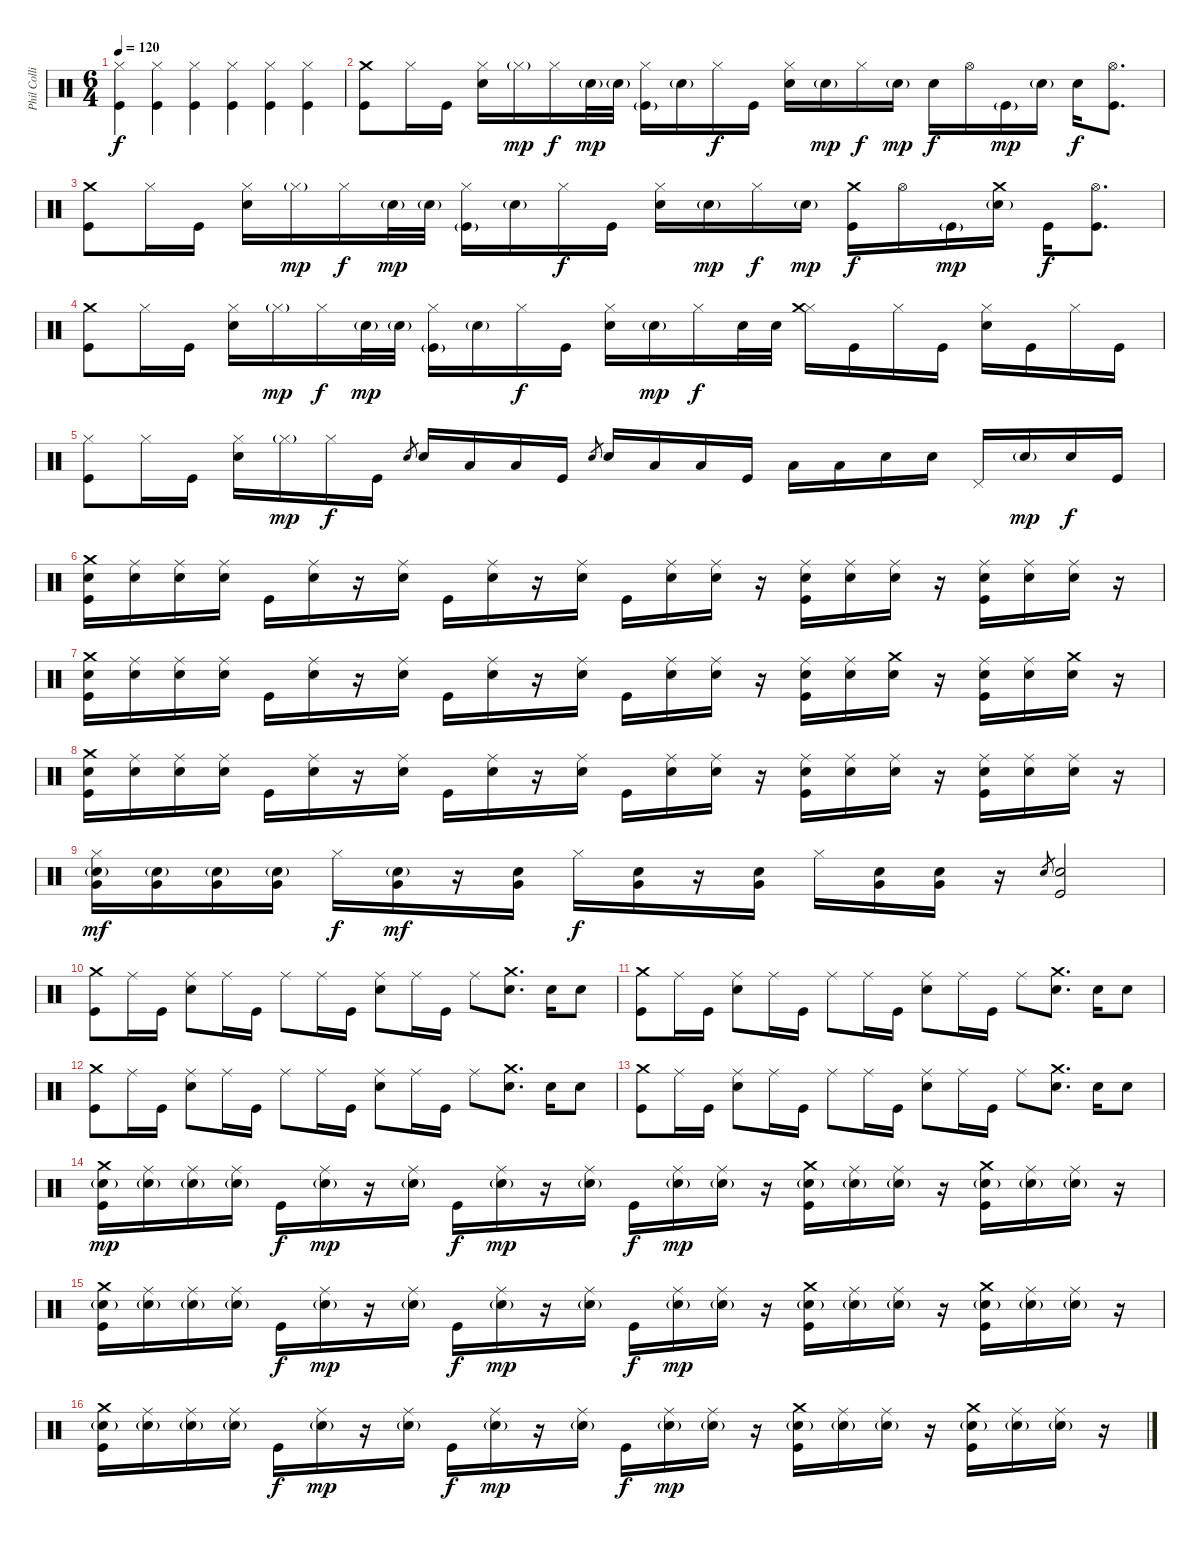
\track ("Phil Collins" "Phil Colli") {instrument percussion}
\staff
\articulation defaults
\ts (6 4)
\tempo 120
\clef neutral
\ks c
("Kick (hit)" "Hi-Hat (closed)").4{dy f} ("Kick (hit)" "Hi-Hat (closed)").4 ("Kick (hit)" "Hi-Hat (closed)").4 ("Kick (hit)" "Hi-Hat (closed)").4 ("Kick (hit)" "Hi-Hat (closed)").4 ("Kick (hit)" "Hi-Hat (closed)").4 |
("Crash medium (hit)" "Kick (hit)").8 "Hi-Hat (closed)".16 "Kick (hit)".16 ("Hi-Hat (closed)" "Electric Snare (hit)").16 "Hi-Hat (closed)"{g}.16{dy mp} "Hi-Hat (closed)".16{dy f} "Electric Snare (hit)"{g}.32{dy mp} "Electric Snare (hit)"{g}.32 ("Hi-Hat (closed)" "Kick (hit)"{g}).16 "Electric Snare (hit)"{g}.16 "Hi-Hat (closed)".16{dy f} "Kick (hit)".16 ("Hi-Hat (closed)" "Electric Snare (hit)").16 "Electric Snare (hit)"{g}.16{dy mp} "Hi-Hat (closed)".16{dy f} "Electric Snare (hit)"{g}.16{dy mp} "Electric Snare (hit)".16{dy f} "Hi-Hat (open)".16 "Kick (hit)"{g}.16{dy mp} "Electric Snare (hit)"{g}.16 "Electric Snare (hit)".16{dy f} ("Hi-Hat (open)" "Kick (hit)").8{d} |
("Crash medium (hit)" "Kick (hit)").8 "Hi-Hat (closed)".16 "Kick (hit)".16 ("Hi-Hat (closed)" "Electric Snare (hit)").16 "Hi-Hat (closed)"{g}.16{dy mp} "Hi-Hat (closed)".16{dy f} "Electric Snare (hit)"{g}.32{dy mp} "Electric Snare (hit)"{g}.32 ("Hi-Hat (closed)" "Kick (hit)"{g}).16 "Electric Snare (hit)"{g}.16 "Hi-Hat (closed)".16{dy f} "Kick (hit)".16 ("Hi-Hat (closed)" "Electric Snare (hit)").16 "Electric Snare (hit)"{g}.16{dy mp} "Hi-Hat (closed)".16{dy f} "Electric Snare (hit)"{g}.16{dy mp} ("Crash medium (hit)" "Kick (hit)").16{dy f} "Hi-Hat (open)".16 "Kick (hit)"{g}.16{dy mp} ("Electric Snare (hit)"{g} "Crash medium (hit)").16 "Kick (hit)".16{dy f} ("Hi-Hat (open)" "Kick (hit)").8{d} |
("Crash medium (hit)" "Kick (hit)").8 "Hi-Hat (closed)".16 "Kick (hit)".16 ("Hi-Hat (closed)" "Electric Snare (hit)").16 "Hi-Hat (closed)"{g}.16{dy mp} "Hi-Hat (closed)".16{dy f} "Electric Snare (hit)"{g}.32{dy mp} "Electric Snare (hit)"{g}.32 ("Hi-Hat (closed)" "Kick (hit)"{g}).16 "Electric Snare (hit)"{g}.16 "Hi-Hat (closed)".16{dy f} "Kick (hit)".16 ("Hi-Hat (closed)" "Electric Snare (hit)").16 "Electric Snare (hit)"{g}.16{dy mp} "Hi-Hat (closed)".16{dy f} "Electric Snare (hit)".32 "Electric Snare (hit)".32 ("Hi-Hat (closed)" "Crash medium (hit)").16 "Kick (hit)".16 "Hi-Hat (closed)".16 "Kick (hit)".16 ("Hi-Hat (closed)" "Electric Snare (hit)").16 "Kick (hit)".16 "Hi-Hat (closed)".16 "Kick (hit)".16 |
("Hi-Hat (closed)" "Kick (hit)").8 "Hi-Hat (closed)".16 "Kick (hit)".16 ("Hi-Hat (closed)" "Electric Snare (hit)").16 "Hi-Hat (closed)"{g}.16{dy mp} "Hi-Hat (closed)".16{dy f} "Kick (hit)".16 "Electric Snare (hit)".8{gr} "Electric Snare (hit)".16 "Low Tom (hit)".16 "Low Floor Tom (hit)".16 "Kick (hit)".16 "Electric Snare (hit)".8{gr} "Electric Snare (hit)".16 "Low Tom (hit)".16 "Low Floor Tom (hit)".16 "Kick (hit)".16 "Low Tom (hit)".16 "Low Tom (hit)".16 "Electric Snare (hit)".16 "Electric Snare (hit)".16 "Pedal Hi-Hat (hit)".16 "Electric Snare (hit)"{g}.16{dy mp} "Electric Snare (hit)".16{dy f} "Kick (hit)".16 |
("Electric Snare (hit)" "Crash medium (hit)" "Kick (hit)").16 ("Electric Snare (hit)" "Ride (middle)").16 ("Electric Snare (hit)" "Ride (middle)").16 ("Electric Snare (hit)" "Ride (middle)").16 "Kick (hit)".16 ("Electric Snare (hit)" "Ride (middle)").16 r.16 ("Electric Snare (hit)" "Ride (middle)").16 "Kick (hit)".16 ("Electric Snare (hit)" "Ride (middle)").16 r.16 ("Electric Snare (hit)" "Ride (middle)").16 "Kick (hit)".16 ("Electric Snare (hit)" "Ride (middle)").16 ("Electric Snare (hit)" "Ride (middle)").16 r.16 ("Electric Snare (hit)" "Ride (middle)" "Kick (hit)").16 ("Electric Snare (hit)" "Ride (middle)").16 ("Electric Snare (hit)" "Ride (middle)").16 r.16 ("Electric Snare (hit)" "Ride (middle)" "Kick (hit)").16 ("Electric Snare (hit)" "Ride (middle)").16 ("Electric Snare (hit)" "Ride (middle)").16 r.16 |
("Electric Snare (hit)" "Crash medium (hit)" "Kick (hit)").16 ("Electric Snare (hit)" "Ride (middle)").16 ("Electric Snare (hit)" "Ride (middle)").16 ("Electric Snare (hit)" "Ride (middle)").16 "Kick (hit)".16 ("Electric Snare (hit)" "Ride (middle)").16 r.16 ("Electric Snare (hit)" "Ride (middle)").16 "Kick (hit)".16 ("Electric Snare (hit)" "Ride (middle)").16 r.16 ("Electric Snare (hit)" "Ride (middle)").16 "Kick (hit)".16 ("Electric Snare (hit)" "Ride (middle)").16 ("Electric Snare (hit)" "Ride (middle)").16 r.16 ("Electric Snare (hit)" "Ride (middle)" "Kick (hit)").16 ("Electric Snare (hit)" "Ride (middle)").16 ("Electric Snare (hit)" "Crash medium (hit)").16 r.16 ("Electric Snare (hit)" "Ride (middle)" "Kick (hit)").16 ("Electric Snare (hit)" "Ride (middle)").16 ("Electric Snare (hit)" "Crash medium (hit)").16 r.16 |
("Electric Snare (hit)" "Crash medium (hit)" "Kick (hit)").16 ("Electric Snare (hit)" "Ride (middle)").16 ("Electric Snare (hit)" "Ride (middle)").16 ("Electric Snare (hit)" "Ride (middle)").16 "Kick (hit)".16 ("Electric Snare (hit)" "Ride (middle)").16 r.16 ("Electric Snare (hit)" "Ride (middle)").16 "Kick (hit)".16 ("Electric Snare (hit)" "Ride (middle)").16 r.16 ("Electric Snare (hit)" "Ride (middle)").16 "Kick (hit)".16 ("Electric Snare (hit)" "Ride (middle)").16 ("Electric Snare (hit)" "Ride (middle)").16 r.16 ("Electric Snare (hit)" "Ride (middle)" "Kick (hit)").16 ("Electric Snare (hit)" "Ride (middle)").16 ("Electric Snare (hit)" "Ride (middle)").16 r.16 ("Electric Snare (hit)" "Ride (middle)" "Kick (hit)").16 ("Electric Snare (hit)" "Ride (middle)").16 ("Electric Snare (hit)" "Ride (middle)").16 r.16 |
("Electric Snare (hit)"{g} "Very Low Tom (hit)" "Hi-Hat (closed)").16{dy mf} ("Electric Snare (hit)"{g} "Very Low Tom (hit)").16 ("Electric Snare (hit)"{g} "Very Low Tom (hit)").16 ("Electric Snare (hit)"{g} "Very Low Tom (hit)").16 "Hi-Hat (closed)".16{dy f} ("Electric Snare (hit)"{g} "Very Low Tom (hit)").16{dy mf} r.16 ("Electric Snare (hit)" "Very Low Tom (hit)").16 "Hi-Hat (closed)".16{dy f} ("Electric Snare (hit)" "Very Low Tom (hit)").16 r.16 ("Electric Snare (hit)" "Very Low Tom (hit)").16 "Hi-Hat (closed)".16 ("Electric Snare (hit)" "Very Low Tom (hit)").16 ("Electric Snare (hit)" "Very Low Tom (hit)").16 r.16 "Electric Snare (hit)".8{gr} ("Electric Snare (hit)" "Kick (hit)").2 |
("Crash medium (hit)" "Kick (hit)").8 "Ride (middle)".16 "Kick (hit)".16 ("Ride (middle)" "Electric Snare (hit)").8 "Ride (middle)".16 "Kick (hit)".16 "Ride (middle)".8 "Ride (middle)".16 "Kick (hit)".16 ("Ride (middle)" "Electric Snare (hit)").8 "Ride (middle)".16 "Kick (hit)".16 "Ride (middle)".8 ("Crash medium (hit)" "Electric Snare (hit)").8{d} "Electric Snare (hit)".16 "Electric Snare (hit)".8 |
("Crash medium (hit)" "Kick (hit)").8 "Ride (middle)".16 "Kick (hit)".16 ("Ride (middle)" "Electric Snare (hit)").8 "Ride (middle)".16 "Kick (hit)".16 "Ride (middle)".8 "Ride (middle)".16 "Kick (hit)".16 ("Ride (middle)" "Electric Snare (hit)").8 "Ride (middle)".16 "Kick (hit)".16 "Ride (middle)".8 ("Crash medium (hit)" "Electric Snare (hit)").8{d} "Electric Snare (hit)".16 "Electric Snare (hit)".8 |
("Crash medium (hit)" "Kick (hit)").8 "Ride (middle)".16 "Kick (hit)".16 ("Ride (middle)" "Electric Snare (hit)").8 "Ride (middle)".16 "Kick (hit)".16 "Ride (middle)".8 "Ride (middle)".16 "Kick (hit)".16 ("Ride (middle)" "Electric Snare (hit)").8 "Ride (middle)".16 "Kick (hit)".16 "Ride (middle)".8 ("Crash medium (hit)" "Electric Snare (hit)").8{d} "Electric Snare (hit)".16 "Electric Snare (hit)".8 |
("Crash medium (hit)" "Kick (hit)").8 "Ride (middle)".16 "Kick (hit)".16 ("Ride (middle)" "Electric Snare (hit)").8 "Ride (middle)".16 "Kick (hit)".16 "Ride (middle)".8 "Ride (middle)".16 "Kick (hit)".16 ("Ride (middle)" "Electric Snare (hit)").8 "Ride (middle)".16 "Kick (hit)".16 "Ride (middle)".8 ("Crash medium (hit)" "Electric Snare (hit)").8{d} "Electric Snare (hit)".16 "Electric Snare (hit)".8 |
("Electric Snare (hit)"{g} "Crash medium (hit)" "Kick (hit)").16{dy mp} ("Electric Snare (hit)"{g} "Ride (middle)").16 ("Electric Snare (hit)"{g} "Ride (middle)").16 ("Electric Snare (hit)"{g} "Ride (middle)").16 "Kick (hit)".16{dy f} ("Electric Snare (hit)"{g} "Ride (middle)").16{dy mp} r.16 ("Electric Snare (hit)"{g} "Ride (middle)").16 "Kick (hit)".16{dy f} ("Electric Snare (hit)"{g} "Ride (middle)").16{dy mp} r.16 ("Electric Snare (hit)"{g} "Ride (middle)").16 "Kick (hit)".16{dy f} ("Electric Snare (hit)"{g} "Ride (middle)").16{dy mp} ("Electric Snare (hit)"{g} "Ride (middle)").16 r.16 ("Electric Snare (hit)"{g} "Crash medium (hit)" "Kick (hit)").16 ("Electric Snare (hit)"{g} "Ride (middle)").16 ("Electric Snare (hit)"{g} "Ride (middle)").16 r.16 ("Electric Snare (hit)"{g} "Crash medium (hit)" "Kick (hit)").16 ("Electric Snare (hit)"{g} "Ride (middle)").16 ("Electric Snare (hit)"{g} "Ride (middle)").16 r.16 |
("Electric Snare (hit)"{g} "Crash medium (hit)" "Kick (hit)").16 ("Electric Snare (hit)"{g} "Ride (middle)").16 ("Electric Snare (hit)"{g} "Ride (middle)").16 ("Electric Snare (hit)"{g} "Ride (middle)").16 "Kick (hit)".16{dy f} ("Electric Snare (hit)"{g} "Ride (middle)").16{dy mp} r.16 ("Electric Snare (hit)"{g} "Ride (middle)").16 "Kick (hit)".16{dy f} ("Electric Snare (hit)"{g} "Ride (middle)").16{dy mp} r.16 ("Electric Snare (hit)"{g} "Ride (middle)").16 "Kick (hit)".16{dy f} ("Electric Snare (hit)"{g} "Ride (middle)").16{dy mp} ("Electric Snare (hit)"{g} "Ride (middle)").16 r.16 ("Electric Snare (hit)"{g} "Crash medium (hit)" "Kick (hit)").16 ("Electric Snare (hit)"{g} "Ride (middle)").16 ("Electric Snare (hit)"{g} "Ride (middle)").16 r.16 ("Electric Snare (hit)"{g} "Crash medium (hit)" "Kick (hit)").16 ("Electric Snare (hit)"{g} "Ride (middle)").16 ("Electric Snare (hit)"{g} "Ride (middle)").16 r.16 |
("Electric Snare (hit)"{g} "Crash medium (hit)" "Kick (hit)").16 ("Electric Snare (hit)"{g} "Ride (middle)").16 ("Electric Snare (hit)"{g} "Ride (middle)").16 ("Electric Snare (hit)"{g} "Ride (middle)").16 "Kick (hit)".16{dy f} ("Electric Snare (hit)"{g} "Ride (middle)").16{dy mp} r.16 ("Electric Snare (hit)"{g} "Ride (middle)").16 "Kick (hit)".16{dy f} ("Electric Snare (hit)"{g} "Ride (middle)").16{dy mp} r.16 ("Electric Snare (hit)"{g} "Ride (middle)").16 "Kick (hit)".16{dy f} ("Electric Snare (hit)"{g} "Ride (middle)").16{dy mp} ("Electric Snare (hit)"{g} "Ride (middle)").16 r.16 ("Electric Snare (hit)"{g} "Crash medium (hit)" "Kick (hit)").16 ("Electric Snare (hit)"{g} "Ride (middle)").16 ("Electric Snare (hit)"{g} "Ride (middle)").16 r.16 ("Electric Snare (hit)"{g} "Crash medium (hit)" "Kick (hit)").16 ("Electric Snare (hit)"{g} "Ride (middle)").16 ("Electric Snare (hit)"{g} "Ride (middle)").16 r.16
